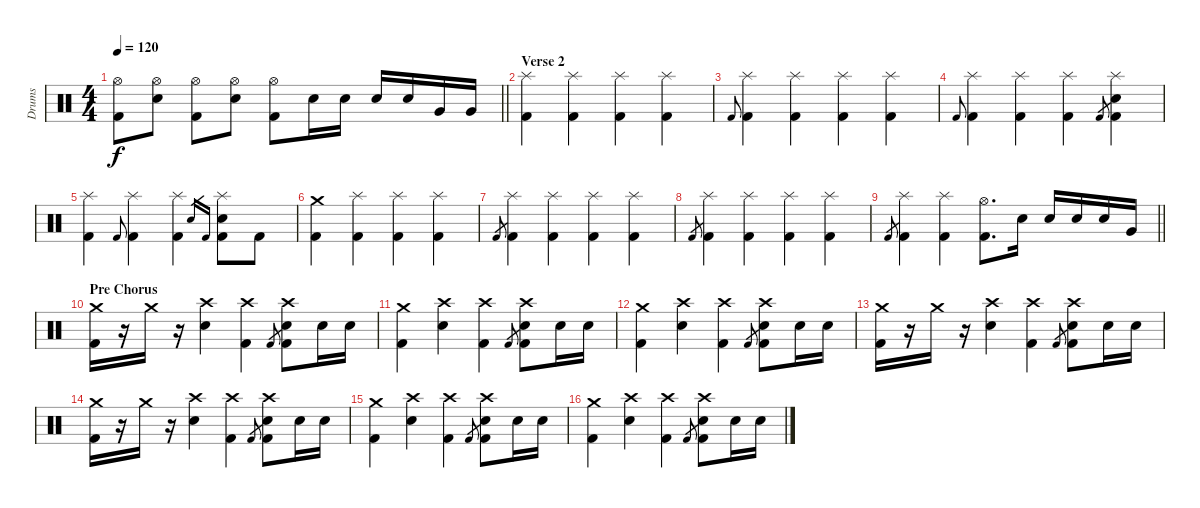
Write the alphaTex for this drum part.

\track ("Drums" "Drums") {instrument percussion}
\staff {score}
\articulation defaults
\ts (4 4)
\tempo 120
\clef neutral
\barLineRight lightlight
\ks c
("Hi-Hat (open)" "Kick (hit) 2").8{dy f} ("Hi-Hat (open)" "Electric Snare (hit)").8 ("Hi-Hat (open)" "Kick (hit) 2").8 ("Hi-Hat (open)" "Electric Snare (hit)").8 ("Hi-Hat (open)" "Kick (hit) 2").8 "Electric Snare (hit)".16 "Electric Snare (hit)".16 "Electric Snare (hit)".16 "Electric Snare (hit)".16 "Very Low Tom (hit)".16 "Very Low Tom (hit)".16 |
\section ("" "Verse 2")
("Splash (hit)" "Kick (hit) 2").4 ("Splash (hit)" "Kick (hit) 2").4 ("Splash (hit)" "Kick (hit) 2").4 ("Splash (hit)" "Kick (hit) 2").4 |
"Kick (hit) 2".8{gr onbeat} ("Splash (hit)" "Kick (hit) 2").4 ("Splash (hit)" "Kick (hit) 2").4 ("Splash (hit)" "Kick (hit) 2").4 ("Splash (hit)" "Kick (hit) 2").4 |
"Kick (hit) 2".8{gr onbeat} ("Splash (hit)" "Kick (hit) 2").4 ("Splash (hit)" "Kick (hit) 2").4 ("Splash (hit)" "Kick (hit) 2").4 "Kick (hit) 2".8{gr} ("Splash (hit)" "Electric Snare (hit)" "Kick (hit) 2").4 |
("Splash (hit)" "Kick (hit) 2").4 "Kick (hit) 2".8{gr onbeat} ("Splash (hit)" "Kick (hit) 2").4 ("Splash (hit)" "Kick (hit) 2").4 "Electric Snare (hit)".16{gr} "Kick (hit) 2".16{gr} ("Splash (hit)" "Electric Snare (hit)" "Kick (hit) 2").8 "Kick (hit) 2".8 |
("Crash medium (hit)" "Kick (hit) 2").4 ("Splash (hit)" "Kick (hit) 2").4 ("Splash (hit)" "Kick (hit) 2").4 ("Splash (hit)" "Kick (hit) 2").4 |
"Kick (hit) 2".8{gr} ("Splash (hit)" "Kick (hit) 2").4 ("Splash (hit)" "Kick (hit) 2").4 ("Splash (hit)" "Kick (hit) 2").4 ("Splash (hit)" "Kick (hit) 2").4 |
"Kick (hit) 2".8{gr} ("Splash (hit)" "Kick (hit) 2").4 ("Splash (hit)" "Kick (hit) 2").4 ("Splash (hit)" "Kick (hit) 2").4 ("Splash (hit)" "Kick (hit) 2").4 |
\barLineRight lightlight "Kick (hit) 2".8{gr}
("Splash (hit)" "Kick (hit) 2").4 ("Splash (hit)" "Kick (hit) 2").4 ("Hi-Hat (open)" "Kick (hit) 2").8{d} "Electric Snare (hit)".16 "Electric Snare (hit)".16 "Electric Snare (hit)".16 "Electric Snare (hit)".16 "Very Low Tom (hit)".16 |
\section ("" "Pre Chorus")
("Crash medium (hit)" "Kick (hit) 2").16 r.16 "Crash medium (hit)".16 r.16 ("Crash high (hit)" "Electric Snare (hit)").4 ("Crash high (hit)" "Kick (hit) 2").4 "Kick (hit) 2".8{gr} ("Crash high (hit)" "Electric Snare (hit)" "Kick (hit) 2").8 "Electric Snare (hit)".16 "Electric Snare (hit)".16 |
("Crash medium (hit)" "Kick (hit) 2").4 ("Crash high (hit)" "Electric Snare (hit)").4 ("Crash high (hit)" "Kick (hit) 2").4 "Kick (hit) 2".8{gr} ("Crash high (hit)" "Electric Snare (hit)" "Kick (hit) 2").8 "Electric Snare (hit)".16 "Electric Snare (hit)".16 |
("Crash medium (hit)" "Kick (hit) 2").4 ("Crash high (hit)" "Electric Snare (hit)").4 ("Crash high (hit)" "Kick (hit) 2").4 "Kick (hit) 2".8{gr} ("Crash high (hit)" "Electric Snare (hit)" "Kick (hit) 2").8 "Electric Snare (hit)".16 "Electric Snare (hit)".16 |
("Crash medium (hit)" "Kick (hit) 2").16 r.16 "Crash medium (hit)".16 r.16 ("Crash high (hit)" "Electric Snare (hit)").4 ("Crash high (hit)" "Kick (hit) 2").4 "Kick (hit) 2".8{gr} ("Crash high (hit)" "Electric Snare (hit)" "Kick (hit) 2").8 "Electric Snare (hit)".16 "Electric Snare (hit)".16 |
("Crash medium (hit)" "Kick (hit) 2").16 r.16 "Crash medium (hit)".16 r.16 ("Crash high (hit)" "Electric Snare (hit)").4 ("Crash high (hit)" "Kick (hit) 2").4 "Kick (hit) 2".8{gr} ("Crash high (hit)" "Electric Snare (hit)" "Kick (hit) 2").8 "Electric Snare (hit)".16 "Electric Snare (hit)".16 |
("Crash medium (hit)" "Kick (hit) 2").4 ("Crash high (hit)" "Electric Snare (hit)").4 ("Crash high (hit)" "Kick (hit) 2").4 "Kick (hit) 2".8{gr} ("Crash high (hit)" "Electric Snare (hit)" "Kick (hit) 2").8 "Electric Snare (hit)".16 "Electric Snare (hit)".16 |
("Crash medium (hit)" "Kick (hit) 2").4 ("Crash high (hit)" "Electric Snare (hit)").4 ("Crash high (hit)" "Kick (hit) 2").4 "Kick (hit) 2".8{gr} ("Crash high (hit)" "Electric Snare (hit)" "Kick (hit) 2").8 "Electric Snare (hit)".16 "Electric Snare (hit)".16
